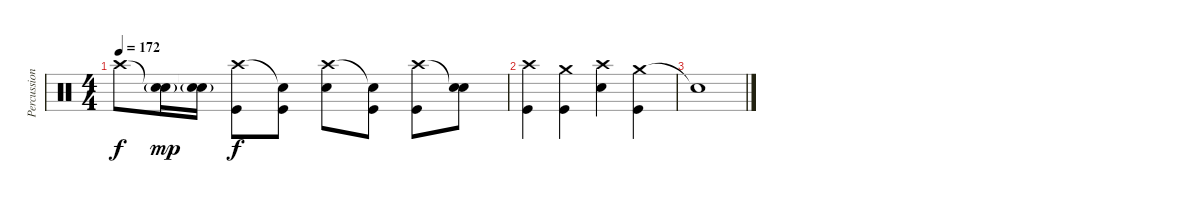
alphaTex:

\track ("Percussion" "Percussion") {instrument percussion}
\staff {score}
\articulation defaults
\ts (4 4)
\tempo 172
\clef neutral
\ks c "Crash high (hit)".8{dy f}
("Snare (hit)"{t} "Electric Snare (hit)"{g}).16{dy mp} ("Snare (hit)"{t} "Electric Snare (hit)"{g}).16 ("Crash high (hit)" "Kick (hit)").8{dy f} ("Snare (hit)"{t} "Kick (hit)").8 ("Crash high (hit)" "Electric Snare (hit)").8 ("Snare (hit)"{t} "Kick (hit)").8 ("Crash high (hit)" "Kick (hit)").8 ("Snare (hit)"{t} "Electric Snare (hit)").8 |
("Crash high (hit)" "Kick (hit)").4 ("Crash medium (hit)" "Kick (hit)").4 ("Crash high (hit)" "Electric Snare (hit)").4 ("Crash medium (hit)" "Kick (hit)").4 |
"Snare (hit)"{t}.1
